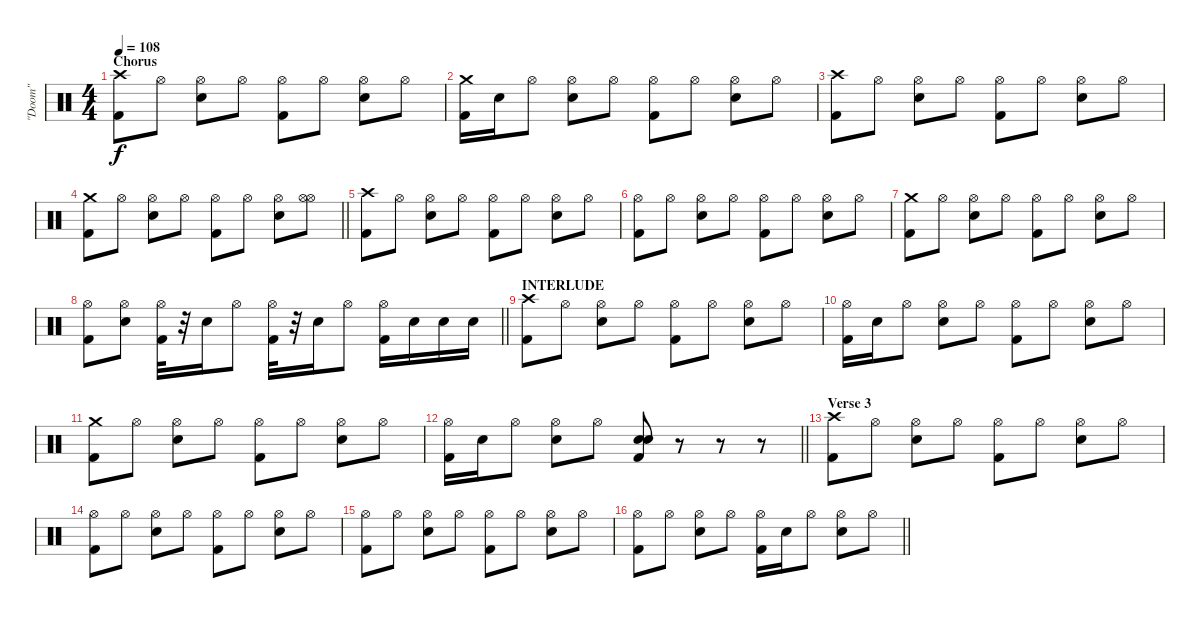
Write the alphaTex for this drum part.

\track ("\"Doom\"" "\"Doom\"") {instrument percussion}
\staff {score}
\articulation defaults
\ts (4 4)
\section ("" "Chorus")
\tempo 108
\clef neutral
\ks c
("Crash high (hit)" "Kick (hit) 2").8{dy f} "Hi-Hat (open)".8 ("Hi-Hat (open)" "Snare (hit) 2").8 "Hi-Hat (open)".8 ("Hi-Hat (open)" "Kick (hit) 2").8 "Hi-Hat (open)".8 ("Hi-Hat (open)" "Snare (hit) 2").8 "Hi-Hat (open)".8 |
("Crash medium (hit)" "Kick (hit) 2").16 "Snare (hit) 2".16 "Hi-Hat (open)".8 ("Hi-Hat (open)" "Snare (hit) 2").8 "Hi-Hat (open)".8 ("Hi-Hat (open)" "Kick (hit) 2").8 "Hi-Hat (open)".8 ("Hi-Hat (open)" "Snare (hit) 2").8 "Hi-Hat (open)".8 |
("Crash high (hit)" "Kick (hit) 2").8 "Hi-Hat (open)".8 ("Hi-Hat (open)" "Snare (hit) 2").8 "Hi-Hat (open)".8 ("Hi-Hat (open)" "Kick (hit) 2").8 "Hi-Hat (open)".8 ("Hi-Hat (open)" "Snare (hit) 2").8 "Hi-Hat (open)".8 |
\barLineRight lightlight
("Crash medium (hit)" "Kick (hit) 2").8 "Hi-Hat (open)".8 ("Hi-Hat (open)" "Snare (hit) 2").8 "Hi-Hat (open)".8 ("Hi-Hat (open)" "Kick (hit) 2").8 "Hi-Hat (open)".8 ("Hi-Hat (open)" "Snare (hit) 2").8 ("Hi-Hat (open)" "Hi-Hat (open)").8 |
("Crash high (hit)" "Kick (hit) 2").8 "Hi-Hat (open)".8 ("Hi-Hat (open)" "Snare (hit) 2").8 "Hi-Hat (open)".8 ("Hi-Hat (open)" "Kick (hit) 2").8 "Hi-Hat (open)".8 ("Hi-Hat (open)" "Snare (hit) 2").8 "Hi-Hat (open)".8 |
("Hi-Hat (open)" "Kick (hit) 2").8 "Hi-Hat (open)".8 ("Hi-Hat (open)" "Snare (hit) 2").8 "Hi-Hat (open)".8 ("Hi-Hat (open)" "Kick (hit) 2").8 "Hi-Hat (open)".8 ("Hi-Hat (open)" "Snare (hit) 2").8 "Hi-Hat (open)".8 |
("Crash medium (hit)" "Kick (hit) 2").8 "Hi-Hat (open)".8 ("Hi-Hat (open)" "Snare (hit) 2").8 "Hi-Hat (open)".8 ("Hi-Hat (open)" "Kick (hit) 2").8 "Hi-Hat (open)".8 ("Hi-Hat (open)" "Snare (hit) 2").8 "Hi-Hat (open)".8 |
\barLineRight lightlight
("Hi-Hat (open)" "Kick (hit) 2").8 ("Hi-Hat (open)" "Snare (hit) 2").8 ("Hi-Hat (open)" "Kick (hit) 2").32 r.32 "Snare (hit) 2".16 "Hi-Hat (open)".8 ("Hi-Hat (open)" "Kick (hit) 2").32 r.32 "Snare (hit) 2".16 "Hi-Hat (open)".8 ("Hi-Hat (open)" "Kick (hit) 2").16 "Snare (hit) 2".16 "Snare (hit) 2".16 "Snare (hit) 2".16 |
\section ("" "INTERLUDE")
("Crash high (hit)" "Kick (hit) 2").8 "Hi-Hat (open)".8 ("Hi-Hat (open)" "Snare (hit) 2").8 "Hi-Hat (open)".8 ("Hi-Hat (open)" "Kick (hit) 2").8 "Hi-Hat (open)".8 ("Hi-Hat (open)" "Snare (hit) 2").8 "Hi-Hat (open)".8 |
("Hi-Hat (open)" "Kick (hit) 2").16 "Snare (hit) 2".16 "Hi-Hat (open)".8 ("Hi-Hat (open)" "Snare (hit) 2").8 "Hi-Hat (open)".8 ("Hi-Hat (open)" "Kick (hit) 2").8 "Hi-Hat (open)".8 ("Hi-Hat (open)" "Snare (hit) 2").8 "Hi-Hat (open)".8 |
("Crash medium (hit)" "Kick (hit) 2").8 "Hi-Hat (open)".8 ("Hi-Hat (open)" "Snare (hit) 2").8 "Hi-Hat (open)".8 ("Hi-Hat (open)" "Kick (hit) 2").8 "Hi-Hat (open)".8 ("Hi-Hat (open)" "Snare (hit) 2").8 "Hi-Hat (open)".8 |
\barLineRight lightlight
("Hi-Hat (open)" "Kick (hit) 2").16 "Snare (hit) 2".16 "Hi-Hat (open)".8 ("Hi-Hat (open)" "Snare (hit) 2").8 "Hi-Hat (open)".8 ("Snare (hit) 2" "Snare (hit) 2" "Kick (hit) 2").8 r.8 r.8 r.8 |
\section ("" "Verse 3")
("Crash high (hit)" "Kick (hit) 2").8 "Hi-Hat (open)".8 ("Hi-Hat (open)" "Snare (hit) 2").8 "Hi-Hat (open)".8 ("Hi-Hat (open)" "Kick (hit) 2").8 "Hi-Hat (open)".8 ("Hi-Hat (open)" "Snare (hit) 2").8 "Hi-Hat (open)".8 |
("Hi-Hat (open)" "Kick (hit) 2").8 "Hi-Hat (open)".8 ("Hi-Hat (open)" "Snare (hit) 2").8 "Hi-Hat (open)".8 ("Hi-Hat (open)" "Kick (hit) 2").8 "Hi-Hat (open)".8 ("Hi-Hat (open)" "Snare (hit) 2").8 "Hi-Hat (open)".8 |
("Hi-Hat (open)" "Kick (hit) 2").8 "Hi-Hat (open)".8 ("Hi-Hat (open)" "Snare (hit) 2").8 "Hi-Hat (open)".8 ("Hi-Hat (open)" "Kick (hit) 2").8 "Hi-Hat (open)".8 ("Hi-Hat (open)" "Snare (hit) 2").8 "Hi-Hat (open)".8 |
\barLineRight lightlight
("Hi-Hat (open)" "Kick (hit) 2").8 "Hi-Hat (open)".8 ("Hi-Hat (open)" "Snare (hit) 2").8 "Hi-Hat (open)".8 ("Hi-Hat (open)" "Kick (hit) 2").16 "Snare (hit) 2".16 "Hi-Hat (open)".8 ("Hi-Hat (open)" "Snare (hit) 2").8 "Hi-Hat (open)".8
